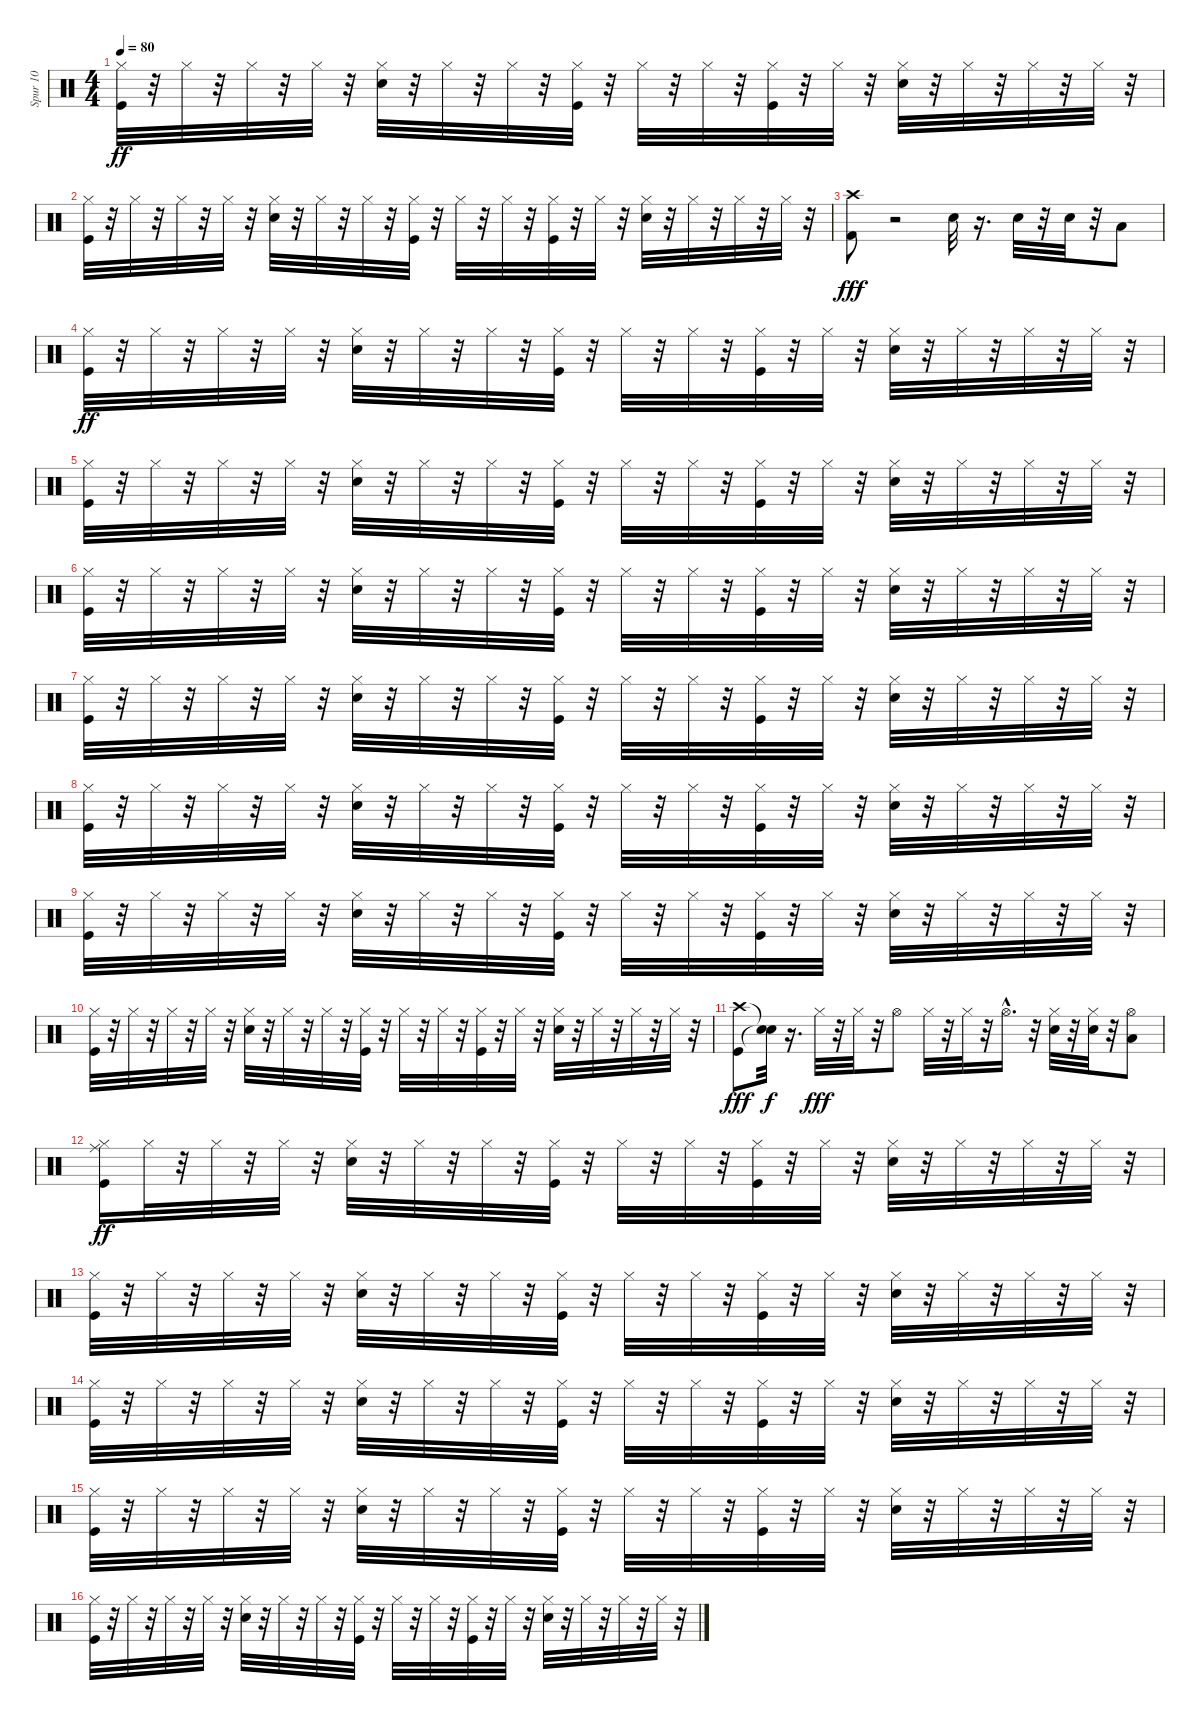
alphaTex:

\track ("Spur 10" "Spur 10") {instrument percussion}
\staff {score}
\articulation defaults
\ts (4 4)
\tempo 80
\clef neutral
\ks c
("Kick (hit)" "Hi-Hat (closed)").32{dy ff} r.32 "Hi-Hat (closed)".32 r.32 "Hi-Hat (closed)".32 r.32 "Hi-Hat (closed)".32 r.32 ("Snare (hit) 2" "Hi-Hat (closed)").32 r.32 "Hi-Hat (closed)".32 r.32 "Hi-Hat (closed)".32 r.32 ("Kick (hit)" "Hi-Hat (closed)").32 r.32 "Hi-Hat (closed)".32 r.32 "Hi-Hat (closed)".32 r.32 ("Kick (hit)" "Hi-Hat (closed)").32 r.32 "Hi-Hat (closed)".32 r.32 ("Snare (hit) 2" "Hi-Hat (closed)").32 r.32 "Hi-Hat (closed)".32 r.32 "Hi-Hat (closed)".32 r.32 "Hi-Hat (closed)".32 r.32 |
("Kick (hit)" "Hi-Hat (closed)").32 r.32 "Hi-Hat (closed)".32 r.32 "Hi-Hat (closed)".32 r.32 "Hi-Hat (closed)".32 r.32 ("Snare (hit) 2" "Hi-Hat (closed)").32 r.32 "Hi-Hat (closed)".32 r.32 "Hi-Hat (closed)".32 r.32 ("Kick (hit)" "Hi-Hat (closed)").32 r.32 "Hi-Hat (closed)".32 r.32 "Hi-Hat (closed)".32 r.32 ("Kick (hit)" "Hi-Hat (closed)").32 r.32 "Hi-Hat (closed)".32 r.32 ("Snare (hit) 2" "Hi-Hat (closed)").32 r.32 "Hi-Hat (closed)".32 r.32 "Hi-Hat (closed)".32 r.32 "Hi-Hat (closed)".32 r.32 |
("Kick (hit) 2" "Crash high (hit)").8{dy fff} r.2 "Snare (hit) 2".32 r.16{d} "Snare (hit) 2".32 r.32 "Snare (hit) 2".32 r.32 "Low Floor Tom (hit)".8 |
("Kick (hit)" "Hi-Hat (closed)").32{dy ff} r.32 "Hi-Hat (closed)".32 r.32 "Hi-Hat (closed)".32 r.32 "Hi-Hat (closed)".32 r.32 ("Snare (hit) 2" "Hi-Hat (closed)").32 r.32 "Hi-Hat (closed)".32 r.32 "Hi-Hat (closed)".32 r.32 ("Kick (hit)" "Hi-Hat (closed)").32 r.32 "Hi-Hat (closed)".32 r.32 "Hi-Hat (closed)".32 r.32 ("Kick (hit)" "Hi-Hat (closed)").32 r.32 "Hi-Hat (closed)".32 r.32 ("Snare (hit) 2" "Hi-Hat (closed)").32 r.32 "Hi-Hat (closed)".32 r.32 "Hi-Hat (closed)".32 r.32 "Hi-Hat (closed)".32 r.32 |
("Kick (hit)" "Hi-Hat (closed)").32 r.32 "Hi-Hat (closed)".32 r.32 "Hi-Hat (closed)".32 r.32 "Hi-Hat (closed)".32 r.32 ("Snare (hit) 2" "Hi-Hat (closed)").32 r.32 "Hi-Hat (closed)".32 r.32 "Hi-Hat (closed)".32 r.32 ("Kick (hit)" "Hi-Hat (closed)").32 r.32 "Hi-Hat (closed)".32 r.32 "Hi-Hat (closed)".32 r.32 ("Kick (hit)" "Hi-Hat (closed)").32 r.32 "Hi-Hat (closed)".32 r.32 ("Snare (hit) 2" "Hi-Hat (closed)").32 r.32 "Hi-Hat (closed)".32 r.32 "Hi-Hat (closed)".32 r.32 "Hi-Hat (closed)".32 r.32 |
("Kick (hit)" "Hi-Hat (closed)").32 r.32 "Hi-Hat (closed)".32 r.32 "Hi-Hat (closed)".32 r.32 "Hi-Hat (closed)".32 r.32 ("Snare (hit) 2" "Hi-Hat (closed)").32 r.32 "Hi-Hat (closed)".32 r.32 "Hi-Hat (closed)".32 r.32 ("Kick (hit)" "Hi-Hat (closed)").32 r.32 "Hi-Hat (closed)".32 r.32 "Hi-Hat (closed)".32 r.32 ("Kick (hit)" "Hi-Hat (closed)").32 r.32 "Hi-Hat (closed)".32 r.32 ("Snare (hit) 2" "Hi-Hat (closed)").32 r.32 "Hi-Hat (closed)".32 r.32 "Hi-Hat (closed)".32 r.32 "Hi-Hat (closed)".32 r.32 |
("Kick (hit)" "Hi-Hat (closed)").32 r.32 "Hi-Hat (closed)".32 r.32 "Hi-Hat (closed)".32 r.32 "Hi-Hat (closed)".32 r.32 ("Snare (hit) 2" "Hi-Hat (closed)").32 r.32 "Hi-Hat (closed)".32 r.32 "Hi-Hat (closed)".32 r.32 ("Kick (hit)" "Hi-Hat (closed)").32 r.32 "Hi-Hat (closed)".32 r.32 "Hi-Hat (closed)".32 r.32 ("Kick (hit)" "Hi-Hat (closed)").32 r.32 "Hi-Hat (closed)".32 r.32 ("Snare (hit) 2" "Hi-Hat (closed)").32 r.32 "Hi-Hat (closed)".32 r.32 "Hi-Hat (closed)".32 r.32 "Hi-Hat (closed)".32 r.32 |
("Kick (hit)" "Hi-Hat (closed)").32 r.32 "Hi-Hat (closed)".32 r.32 "Hi-Hat (closed)".32 r.32 "Hi-Hat (closed)".32 r.32 ("Snare (hit) 2" "Hi-Hat (closed)").32 r.32 "Hi-Hat (closed)".32 r.32 "Hi-Hat (closed)".32 r.32 ("Kick (hit)" "Hi-Hat (closed)").32 r.32 "Hi-Hat (closed)".32 r.32 "Hi-Hat (closed)".32 r.32 ("Kick (hit)" "Hi-Hat (closed)").32 r.32 "Hi-Hat (closed)".32 r.32 ("Snare (hit) 2" "Hi-Hat (closed)").32 r.32 "Hi-Hat (closed)".32 r.32 "Hi-Hat (closed)".32 r.32 "Hi-Hat (closed)".32 r.32 |
("Kick (hit)" "Hi-Hat (closed)").32 r.32 "Hi-Hat (closed)".32 r.32 "Hi-Hat (closed)".32 r.32 "Hi-Hat (closed)".32 r.32 ("Snare (hit) 2" "Hi-Hat (closed)").32 r.32 "Hi-Hat (closed)".32 r.32 "Hi-Hat (closed)".32 r.32 ("Kick (hit)" "Hi-Hat (closed)").32 r.32 "Hi-Hat (closed)".32 r.32 "Hi-Hat (closed)".32 r.32 ("Kick (hit)" "Hi-Hat (closed)").32 r.32 "Hi-Hat (closed)".32 r.32 ("Snare (hit) 2" "Hi-Hat (closed)").32 r.32 "Hi-Hat (closed)".32 r.32 "Hi-Hat (closed)".32 r.32 "Hi-Hat (closed)".32 r.32 |
("Kick (hit)" "Hi-Hat (closed)").32 r.32 "Hi-Hat (closed)".32 r.32 "Hi-Hat (closed)".32 r.32 "Hi-Hat (closed)".32 r.32 ("Snare (hit) 2" "Hi-Hat (closed)").32 r.32 "Hi-Hat (closed)".32 r.32 "Hi-Hat (closed)".32 r.32 ("Kick (hit)" "Hi-Hat (closed)").32 r.32 "Hi-Hat (closed)".32 r.32 "Hi-Hat (closed)".32 r.32 ("Kick (hit)" "Hi-Hat (closed)").32 r.32 "Hi-Hat (closed)".32 r.32 ("Snare (hit) 2" "Hi-Hat (closed)").32 r.32 "Hi-Hat (closed)".32 r.32 "Hi-Hat (closed)".32 r.32 "Hi-Hat (closed)".32 r.32 |
("Kick (hit)" "Crash high (hit)").8{dy fff} ("Snare (hit)"{t} "Snare (hit)"{t}).32{dy f} r.16{d} "Hi-Hat (closed)".32{dy fff} r.32 "Hi-Hat (closed)".32 r.32 "Hi-Hat (open)".8 "Hi-Hat (closed)".32 r.32 "Hi-Hat (closed)".32 r.32 "Hi-Hat (open)"{hac}.16{d} r.32 ("Electric Snare (hit)" "Hi-Hat (closed)").32 r.32 ("Electric Snare (hit)" "Hi-Hat (closed)").32 r.32 ("Low Floor Tom (hit)" "Hi-Hat (open)").8 |
("Kick (hit)" "Hi-Hat (closed)" "Ride (middle)").16{dy ff} "Hi-Hat (closed)".32 r.32 "Hi-Hat (closed)".32 r.32 "Hi-Hat (closed)".32 r.32 ("Snare (hit) 2" "Hi-Hat (closed)").32 r.32 "Hi-Hat (closed)".32 r.32 "Hi-Hat (closed)".32 r.32 ("Kick (hit)" "Hi-Hat (closed)").32 r.32 "Hi-Hat (closed)".32 r.32 "Hi-Hat (closed)".32 r.32 ("Kick (hit)" "Hi-Hat (closed)").32 r.32 "Hi-Hat (closed)".32 r.32 ("Snare (hit) 2" "Hi-Hat (closed)").32 r.32 "Hi-Hat (closed)".32 r.32 "Hi-Hat (closed)".32 r.32 "Hi-Hat (closed)".32 r.32 |
("Kick (hit)" "Hi-Hat (closed)").32 r.32 "Hi-Hat (closed)".32 r.32 "Hi-Hat (closed)".32 r.32 "Hi-Hat (closed)".32 r.32 ("Snare (hit) 2" "Hi-Hat (closed)").32 r.32 "Hi-Hat (closed)".32 r.32 "Hi-Hat (closed)".32 r.32 ("Kick (hit)" "Hi-Hat (closed)").32 r.32 "Hi-Hat (closed)".32 r.32 "Hi-Hat (closed)".32 r.32 ("Kick (hit)" "Hi-Hat (closed)").32 r.32 "Hi-Hat (closed)".32 r.32 ("Snare (hit) 2" "Hi-Hat (closed)").32 r.32 "Hi-Hat (closed)".32 r.32 "Hi-Hat (closed)".32 r.32 "Hi-Hat (closed)".32 r.32 |
("Kick (hit)" "Hi-Hat (closed)").32 r.32 "Hi-Hat (closed)".32 r.32 "Hi-Hat (closed)".32 r.32 "Hi-Hat (closed)".32 r.32 ("Snare (hit) 2" "Hi-Hat (closed)").32 r.32 "Hi-Hat (closed)".32 r.32 "Hi-Hat (closed)".32 r.32 ("Kick (hit)" "Hi-Hat (closed)").32 r.32 "Hi-Hat (closed)".32 r.32 "Hi-Hat (closed)".32 r.32 ("Kick (hit)" "Hi-Hat (closed)").32 r.32 "Hi-Hat (closed)".32 r.32 ("Snare (hit) 2" "Hi-Hat (closed)").32 r.32 "Hi-Hat (closed)".32 r.32 "Hi-Hat (closed)".32 r.32 "Hi-Hat (closed)".32 r.32 |
("Kick (hit)" "Hi-Hat (closed)").32 r.32 "Hi-Hat (closed)".32 r.32 "Hi-Hat (closed)".32 r.32 "Hi-Hat (closed)".32 r.32 ("Snare (hit) 2" "Hi-Hat (closed)").32 r.32 "Hi-Hat (closed)".32 r.32 "Hi-Hat (closed)".32 r.32 ("Kick (hit)" "Hi-Hat (closed)").32 r.32 "Hi-Hat (closed)".32 r.32 "Hi-Hat (closed)".32 r.32 ("Kick (hit)" "Hi-Hat (closed)").32 r.32 "Hi-Hat (closed)".32 r.32 ("Snare (hit) 2" "Hi-Hat (closed)").32 r.32 "Hi-Hat (closed)".32 r.32 "Hi-Hat (closed)".32 r.32 "Hi-Hat (closed)".32 r.32 |
("Kick (hit)" "Hi-Hat (closed)").32 r.32 "Hi-Hat (closed)".32 r.32 "Hi-Hat (closed)".32 r.32 "Hi-Hat (closed)".32 r.32 ("Snare (hit) 2" "Hi-Hat (closed)").32 r.32 "Hi-Hat (closed)".32 r.32 "Hi-Hat (closed)".32 r.32 ("Kick (hit)" "Hi-Hat (closed)").32 r.32 "Hi-Hat (closed)".32 r.32 "Hi-Hat (closed)".32 r.32 ("Kick (hit)" "Hi-Hat (closed)").32 r.32 "Hi-Hat (closed)".32 r.32 ("Snare (hit) 2" "Hi-Hat (closed)").32 r.32 "Hi-Hat (closed)".32 r.32 "Hi-Hat (closed)".32 r.32 "Hi-Hat (closed)".32 r.32
